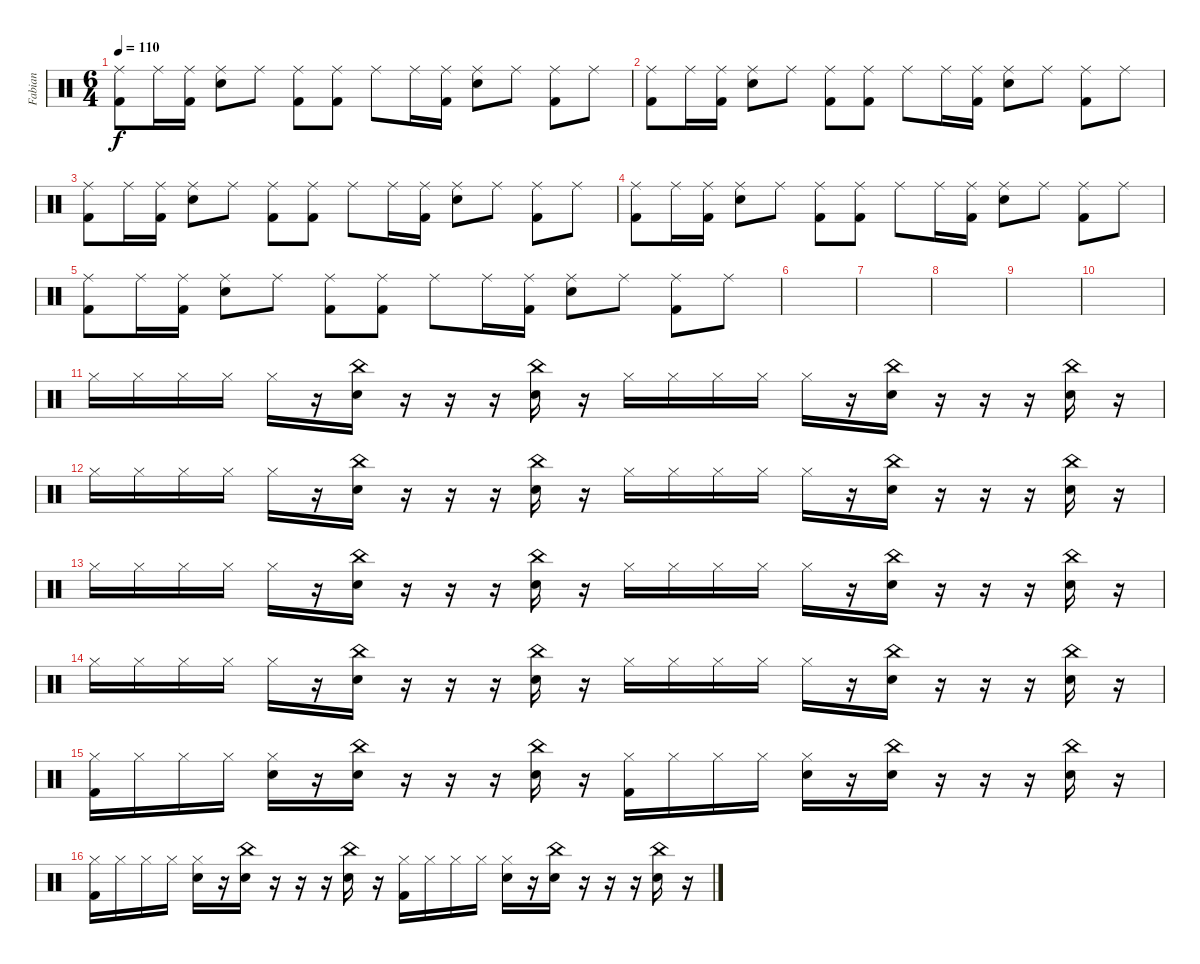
\track ("Fabian" "Fabian") {instrument percussion}
\staff {score}
\articulation defaults
\ts (6 4)
\tempo 110
\clef neutral
\ks c
("Ride (middle)" "Kick (hit) 2").8{dy f} "Ride (middle)".16 ("Ride (middle)" "Kick (hit) 2").16 ("Ride (middle)" "Snare (hit) 2").8 "Ride (middle)".8 ("Ride (middle)" "Kick (hit) 2").8 ("Ride (middle)" "Kick (hit) 2").8 "Ride (middle)".8 "Ride (middle)".16 ("Ride (middle)" "Kick (hit) 2").16 ("Ride (middle)" "Snare (hit) 2").8 "Ride (middle)".8 ("Ride (middle)" "Kick (hit) 2").8 "Ride (middle)".8 |
("Ride (middle)" "Kick (hit) 2").8 "Ride (middle)".16 ("Ride (middle)" "Kick (hit) 2").16 ("Ride (middle)" "Snare (hit) 2").8 "Ride (middle)".8 ("Ride (middle)" "Kick (hit) 2").8 ("Ride (middle)" "Kick (hit) 2").8 "Ride (middle)".8 "Ride (middle)".16 ("Ride (middle)" "Kick (hit) 2").16 ("Ride (middle)" "Snare (hit) 2").8 "Ride (middle)".8 ("Ride (middle)" "Kick (hit) 2").8 "Ride (middle)".8 |
("Ride (middle)" "Kick (hit) 2").8 "Ride (middle)".16 ("Ride (middle)" "Kick (hit) 2").16 ("Ride (middle)" "Snare (hit) 2").8 "Ride (middle)".8 ("Ride (middle)" "Kick (hit) 2").8 ("Ride (middle)" "Kick (hit) 2").8 "Ride (middle)".8 "Ride (middle)".16 ("Ride (middle)" "Kick (hit) 2").16 ("Ride (middle)" "Snare (hit) 2").8 "Ride (middle)".8 ("Ride (middle)" "Kick (hit) 2").8 "Ride (middle)".8 |
("Ride (middle)" "Kick (hit) 2").8 "Ride (middle)".16 ("Ride (middle)" "Kick (hit) 2").16 ("Ride (middle)" "Snare (hit) 2").8 "Ride (middle)".8 ("Ride (middle)" "Kick (hit) 2").8 ("Ride (middle)" "Kick (hit) 2").8 "Ride (middle)".8 "Ride (middle)".16 ("Ride (middle)" "Kick (hit) 2").16 ("Ride (middle)" "Snare (hit) 2").8 "Ride (middle)".8 ("Ride (middle)" "Kick (hit) 2").8 "Ride (middle)".8 |
("Ride (middle)" "Kick (hit) 2").8 "Ride (middle)".16 ("Ride (middle)" "Kick (hit) 2").16 ("Ride (middle)" "Snare (hit) 2").8 "Ride (middle)".8 ("Ride (middle)" "Kick (hit) 2").8 ("Ride (middle)" "Kick (hit) 2").8 "Ride (middle)".8 "Ride (middle)".16 ("Ride (middle)" "Kick (hit) 2").16 ("Ride (middle)" "Snare (hit) 2").8 "Ride (middle)".8 ("Ride (middle)" "Kick (hit) 2").8 "Ride (middle)".8 |
|
|
|
|
|
"Hi-Hat (closed)".16 "Hi-Hat (closed)".16 "Hi-Hat (closed)".16 "Hi-Hat (closed)".16 "Hi-Hat (closed)".16 r.16 ("China (hit)" "Snare (hit) 2").16 r.16 r.16 r.16 ("China (hit)" "Snare (hit) 2").16 r.16 "Hi-Hat (closed)".16 "Hi-Hat (closed)".16 "Hi-Hat (closed)".16 "Hi-Hat (closed)".16 "Hi-Hat (closed)".16 r.16 ("China (hit)" "Snare (hit) 2").16 r.16 r.16 r.16 ("China (hit)" "Snare (hit) 2").16 r.16 |
"Hi-Hat (closed)".16 "Hi-Hat (closed)".16 "Hi-Hat (closed)".16 "Hi-Hat (closed)".16 "Hi-Hat (closed)".16 r.16 ("China (hit)" "Snare (hit) 2").16 r.16 r.16 r.16 ("China (hit)" "Snare (hit) 2").16 r.16 "Hi-Hat (closed)".16 "Hi-Hat (closed)".16 "Hi-Hat (closed)".16 "Hi-Hat (closed)".16 "Hi-Hat (closed)".16 r.16 ("China (hit)" "Snare (hit) 2").16 r.16 r.16 r.16 ("China (hit)" "Snare (hit) 2").16 r.16 |
"Hi-Hat (closed)".16 "Hi-Hat (closed)".16 "Hi-Hat (closed)".16 "Hi-Hat (closed)".16 "Hi-Hat (closed)".16 r.16 ("China (hit)" "Snare (hit) 2").16 r.16 r.16 r.16 ("China (hit)" "Snare (hit) 2").16 r.16 "Hi-Hat (closed)".16 "Hi-Hat (closed)".16 "Hi-Hat (closed)".16 "Hi-Hat (closed)".16 "Hi-Hat (closed)".16 r.16 ("China (hit)" "Snare (hit) 2").16 r.16 r.16 r.16 ("China (hit)" "Snare (hit) 2").16 r.16 |
"Hi-Hat (closed)".16 "Hi-Hat (closed)".16 "Hi-Hat (closed)".16 "Hi-Hat (closed)".16 "Hi-Hat (closed)".16 r.16 ("China (hit)" "Snare (hit) 2").16 r.16 r.16 r.16 ("China (hit)" "Snare (hit) 2").16 r.16 "Hi-Hat (closed)".16 "Hi-Hat (closed)".16 "Hi-Hat (closed)".16 "Hi-Hat (closed)".16 "Hi-Hat (closed)".16 r.16 ("China (hit)" "Snare (hit) 2").16 r.16 r.16 r.16 ("China (hit)" "Snare (hit) 2").16 r.16 |
("Hi-Hat (closed)" "Kick (hit) 2").16 "Hi-Hat (closed)".16 "Hi-Hat (closed)".16 "Hi-Hat (closed)".16 ("Hi-Hat (closed)" "Snare (hit) 2").16 r.16 ("China (hit)" "Snare (hit) 2").16 r.16 r.16 r.16 ("China (hit)" "Snare (hit) 2").16 r.16 ("Hi-Hat (closed)" "Kick (hit) 2").16 "Hi-Hat (closed)".16 "Hi-Hat (closed)".16 "Hi-Hat (closed)".16 ("Hi-Hat (closed)" "Snare (hit) 2").16 r.16 ("China (hit)" "Snare (hit) 2").16 r.16 r.16 r.16 ("China (hit)" "Snare (hit) 2").16 r.16 |
("Hi-Hat (closed)" "Kick (hit) 2").16 "Hi-Hat (closed)".16 "Hi-Hat (closed)".16 "Hi-Hat (closed)".16 ("Hi-Hat (closed)" "Snare (hit) 2").16 r.16 ("China (hit)" "Snare (hit) 2").16 r.16 r.16 r.16 ("China (hit)" "Snare (hit) 2").16 r.16 ("Hi-Hat (closed)" "Kick (hit) 2").16 "Hi-Hat (closed)".16 "Hi-Hat (closed)".16 "Hi-Hat (closed)".16 ("Hi-Hat (closed)" "Snare (hit) 2").16 r.16 ("China (hit)" "Snare (hit) 2").16 r.16 r.16 r.16 ("China (hit)" "Snare (hit) 2").16 r.16
